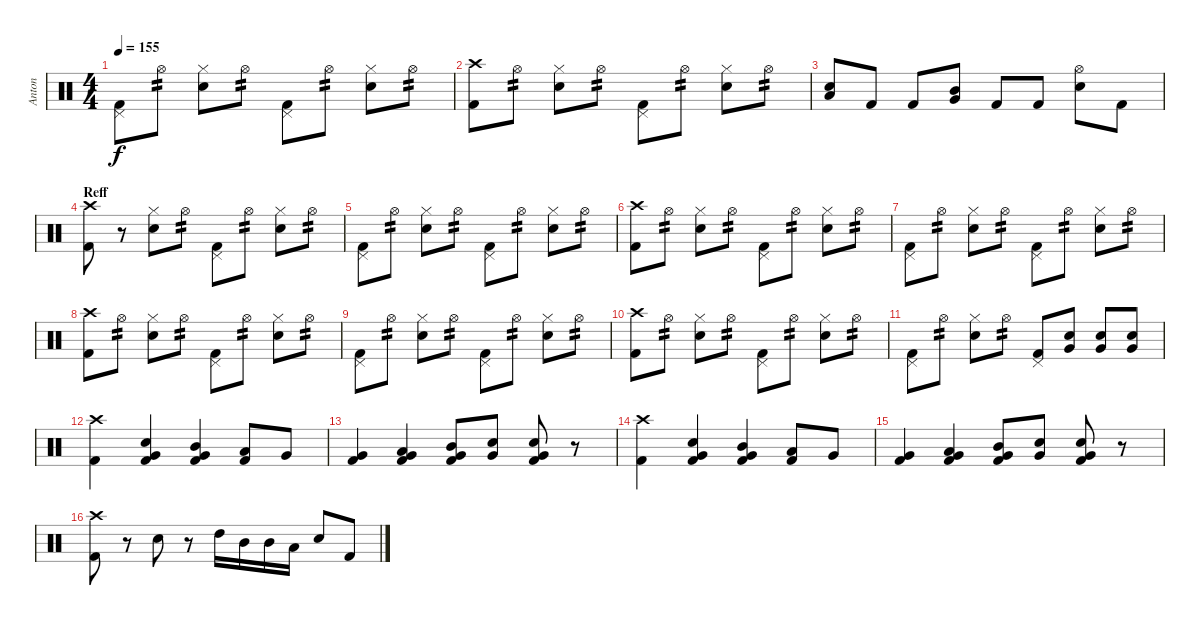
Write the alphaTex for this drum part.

\track ("Anton" "Anton") {instrument percussion}
\staff {score}
\articulation defaults
\ts (4 4)
\tempo 155
\clef neutral
\ks c
("Kick (hit) 2" "Pedal Hi-Hat (hit)").8{dy f} "Hi-Hat (open)".8{tp 2} ("Electric Snare (hit)" "Hi-Hat (closed)").8 "Hi-Hat (open)".8{tp 2} ("Kick (hit) 2" "Pedal Hi-Hat (hit)").8 "Hi-Hat (open)".8{tp 2} ("Electric Snare (hit)" "Hi-Hat (closed)").8 "Hi-Hat (open)".8{tp 2} |
("Kick (hit) 2" "Crash high (hit)").8 "Hi-Hat (open)".8{tp 2} ("Electric Snare (hit)" "Hi-Hat (closed)").8 "Hi-Hat (open)".8{tp 2} ("Kick (hit) 2" "Pedal Hi-Hat (hit)").8 "Hi-Hat (open)".8{tp 2} ("Electric Snare (hit)" "Hi-Hat (closed)").8 "Hi-Hat (open)".8{tp 2} |
("Snare (hit) 2" "Low Tom (hit)").8 "Kick (hit) 2".8 "Kick (hit) 2".8 ("Mid Tom (hit)" "Very Low Tom (hit)").8 "Kick (hit) 2".8 "Kick (hit) 2".8 ("Snare (hit) 2" "Hi-Hat (open)").8 "Kick (hit) 2".8 |
\section ("" "Reff")
("Kick (hit) 2" "Crash high (hit)").8 r.8 ("Electric Snare (hit)" "Hi-Hat (closed)").8 "Hi-Hat (open)".8{tp 2} ("Kick (hit) 2" "Pedal Hi-Hat (hit)").8 "Hi-Hat (open)".8{tp 2} ("Electric Snare (hit)" "Hi-Hat (closed)").8 "Hi-Hat (open)".8{tp 2} |
("Kick (hit) 2" "Pedal Hi-Hat (hit)").8 "Hi-Hat (open)".8{tp 2} ("Electric Snare (hit)" "Hi-Hat (closed)").8 "Hi-Hat (open)".8{tp 2} ("Kick (hit) 2" "Pedal Hi-Hat (hit)").8 "Hi-Hat (open)".8{tp 2} ("Electric Snare (hit)" "Hi-Hat (closed)").8 "Hi-Hat (open)".8{tp 2} |
("Kick (hit) 2" "Crash high (hit)").8 "Hi-Hat (open)".8{tp 2} ("Electric Snare (hit)" "Hi-Hat (closed)").8 "Hi-Hat (open)".8{tp 2} ("Kick (hit) 2" "Pedal Hi-Hat (hit)").8 "Hi-Hat (open)".8{tp 2} ("Electric Snare (hit)" "Hi-Hat (closed)").8 "Hi-Hat (open)".8{tp 2} |
("Kick (hit) 2" "Pedal Hi-Hat (hit)").8 "Hi-Hat (open)".8{tp 2} ("Electric Snare (hit)" "Hi-Hat (closed)").8 "Hi-Hat (open)".8{tp 2} ("Kick (hit) 2" "Pedal Hi-Hat (hit)").8 "Hi-Hat (open)".8{tp 2} ("Electric Snare (hit)" "Hi-Hat (closed)").8 "Hi-Hat (open)".8{tp 2} |
("Kick (hit) 2" "Crash high (hit)").8 "Hi-Hat (open)".8{tp 2} ("Electric Snare (hit)" "Hi-Hat (closed)").8 "Hi-Hat (open)".8{tp 2} ("Kick (hit) 2" "Pedal Hi-Hat (hit)").8 "Hi-Hat (open)".8{tp 2} ("Electric Snare (hit)" "Hi-Hat (closed)").8 "Hi-Hat (open)".8{tp 2} |
("Kick (hit) 2" "Pedal Hi-Hat (hit)").8 "Hi-Hat (open)".8{tp 2} ("Electric Snare (hit)" "Hi-Hat (closed)").8 "Hi-Hat (open)".8{tp 2} ("Kick (hit) 2" "Pedal Hi-Hat (hit)").8 "Hi-Hat (open)".8{tp 2} ("Electric Snare (hit)" "Hi-Hat (closed)").8 "Hi-Hat (open)".8{tp 2} |
("Kick (hit) 2" "Crash high (hit)").8 "Hi-Hat (open)".8{tp 2} ("Electric Snare (hit)" "Hi-Hat (closed)").8 "Hi-Hat (open)".8{tp 2} ("Kick (hit) 2" "Pedal Hi-Hat (hit)").8 "Hi-Hat (open)".8{tp 2} ("Electric Snare (hit)" "Hi-Hat (closed)").8 "Hi-Hat (open)".8{tp 2} |
("Kick (hit) 2" "Pedal Hi-Hat (hit)").8 "Hi-Hat (open)".8{tp 2} ("Electric Snare (hit)" "Hi-Hat (closed)").8 "Hi-Hat (open)".8{tp 2} ("Kick (hit) 2" "Pedal Hi-Hat (hit)").8 ("Snare (hit) 2" "Very Low Tom (hit)").8 ("Snare (hit) 2" "Very Low Tom (hit)").8 ("Snare (hit) 2" "Very Low Tom (hit)").8 |
("Kick (hit) 2" "Crash high (hit)").4 ("Kick (hit) 2" "Snare (hit) 2" "Very Low Tom (hit)").4 ("Kick (hit) 2" "Mid Tom (hit)" "Very Low Tom (hit)").4 ("Kick (hit) 2" "Low Tom (hit)").8 "Very Low Tom (hit)".8 |
("Kick (hit) 2" "Very Low Tom (hit)").4 ("Kick (hit) 2" "Low Tom (hit)" "Very Low Tom (hit)").4 ("Kick (hit) 2" "Mid Tom (hit)" "Very Low Tom (hit)").8 ("Snare (hit) 2" "Very Low Tom (hit)").8 ("Kick (hit) 2" "Snare (hit) 2" "Very Low Tom (hit)").8 r.8 |
("Kick (hit) 2" "Crash high (hit)").4 ("Kick (hit) 2" "Snare (hit) 2" "Very Low Tom (hit)").4 ("Kick (hit) 2" "Mid Tom (hit)" "Very Low Tom (hit)").4 ("Kick (hit) 2" "Low Tom (hit)").8 "Very Low Tom (hit)".8 |
("Kick (hit) 2" "Very Low Tom (hit)").4 ("Kick (hit) 2" "Low Tom (hit)" "Very Low Tom (hit)").4 ("Kick (hit) 2" "Mid Tom (hit)" "Very Low Tom (hit)").8 ("Snare (hit) 2" "Very Low Tom (hit)").8 ("Kick (hit) 2" "Snare (hit) 2" "Very Low Tom (hit)").8 r.8 |
("Kick (hit) 2" "Crash high (hit)").8 r.8 "Snare (hit) 2".8 r.8 "High Tom (hit)".16 "Mid Tom (hit)".16 "Mid Tom (hit)".16 "Low Tom (hit)".16 "Snare (hit) 2".8 "Kick (hit) 2".8
